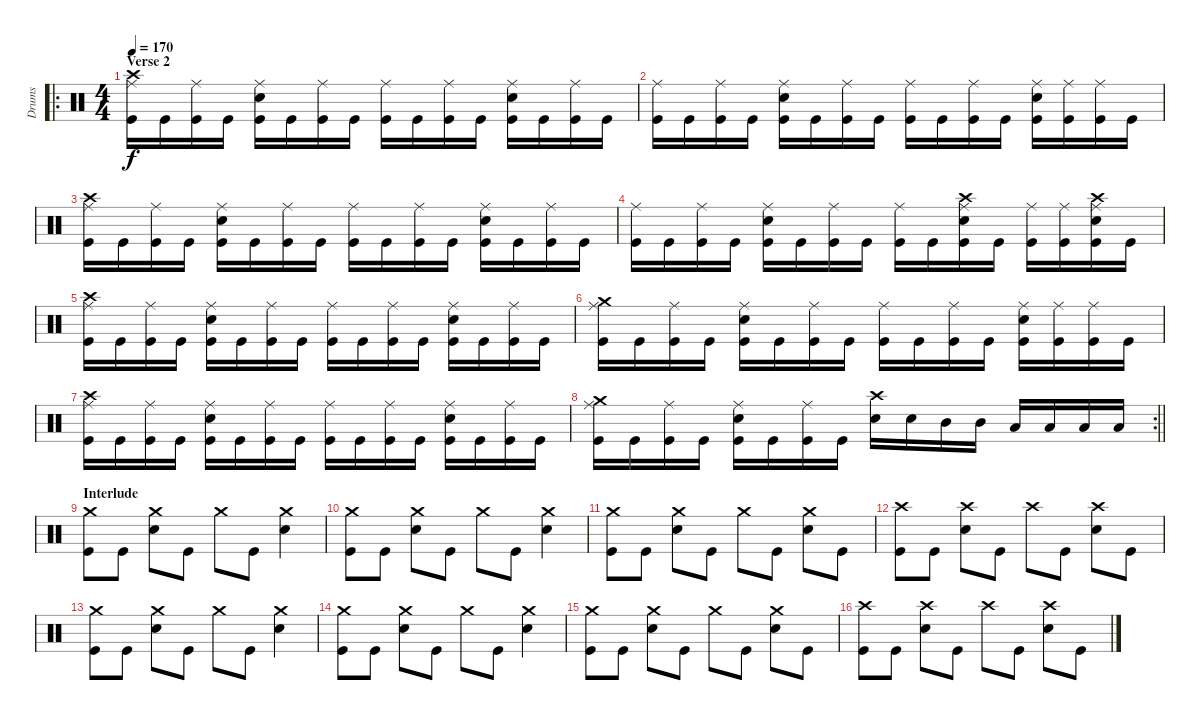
\track ("Drums" "Drums") {instrument percussion}
\staff {score}
\articulation defaults
\ro
\ts (4 4)
\section ("" "Verse 2")
\tempo 170
\clef neutral
\ks c
("Ride (middle)" "Crash high (hit)" "Kick (hit)").16{dy f} "Kick (hit)".16 ("Ride (middle)" "Kick (hit)").16 "Kick (hit)".16 ("Ride (middle)" "Snare (hit) 2" "Kick (hit)").16 "Kick (hit)".16 ("Ride (middle)" "Kick (hit)").16 "Kick (hit)".16 ("Ride (middle)" "Kick (hit)").16 "Kick (hit)".16 ("Ride (middle)" "Kick (hit)").16 "Kick (hit)".16 ("Ride (middle)" "Snare (hit) 2" "Kick (hit)").16 "Kick (hit)".16 ("Ride (middle)" "Kick (hit)").16 "Kick (hit)".16 |
("Ride (middle)" "Kick (hit)").16 "Kick (hit)".16 ("Ride (middle)" "Kick (hit)").16 "Kick (hit)".16 ("Ride (middle)" "Snare (hit) 2" "Kick (hit)").16 "Kick (hit)".16 ("Ride (middle)" "Kick (hit)").16 "Kick (hit)".16 ("Ride (middle)" "Kick (hit)").16 "Kick (hit)".16 ("Ride (middle)" "Kick (hit)").16 "Kick (hit)".16 ("Ride (middle)" "Snare (hit) 2" "Kick (hit)").16 ("Ride (middle)" "Kick (hit)").16 ("Ride (middle)" "Kick (hit)").16 "Kick (hit)".16 |
("Ride (middle)" "Crash high (hit)" "Kick (hit)").16 "Kick (hit)".16 ("Ride (middle)" "Kick (hit)").16 "Kick (hit)".16 ("Ride (middle)" "Snare (hit) 2" "Kick (hit)").16 "Kick (hit)".16 ("Ride (middle)" "Kick (hit)").16 "Kick (hit)".16 ("Ride (middle)" "Kick (hit)").16 "Kick (hit)".16 ("Ride (middle)" "Kick (hit)").16 "Kick (hit)".16 ("Ride (middle)" "Snare (hit) 2" "Kick (hit)").16 "Kick (hit)".16 ("Ride (middle)" "Kick (hit)").16 "Kick (hit)".16 |
("Ride (middle)" "Kick (hit)").16 "Kick (hit)".16 ("Ride (middle)" "Kick (hit)").16 "Kick (hit)".16 ("Ride (middle)" "Snare (hit) 2" "Kick (hit)").16 "Kick (hit)".16 ("Ride (middle)" "Kick (hit)").16 "Kick (hit)".16 ("Ride (middle)" "Kick (hit)").16 "Kick (hit)".16 ("Ride (middle)" "Crash high (hit)" "Snare (hit) 2" "Kick (hit)").16 "Kick (hit)".16 ("Ride (middle)" "Kick (hit)").16 ("Ride (middle)" "Kick (hit)").16 ("Ride (middle)" "Crash high (hit)" "Snare (hit) 2" "Kick (hit)").16 "Kick (hit)".16 |
("Ride (middle)" "Crash high (hit)" "Kick (hit)").16 "Kick (hit)".16 ("Ride (middle)" "Kick (hit)").16 "Kick (hit)".16 ("Ride (middle)" "Snare (hit) 2" "Kick (hit)").16 "Kick (hit)".16 ("Ride (middle)" "Kick (hit)").16 "Kick (hit)".16 ("Ride (middle)" "Kick (hit)").16 "Kick (hit)".16 ("Ride (middle)" "Kick (hit)").16 "Kick (hit)".16 ("Ride (middle)" "Snare (hit) 2" "Kick (hit)").16 "Kick (hit)".16 ("Ride (middle)" "Kick (hit)").16 "Kick (hit)".16 |
("Ride (middle)" "Crash medium (hit)" "Kick (hit)").16 "Kick (hit)".16 ("Ride (middle)" "Kick (hit)").16 "Kick (hit)".16 ("Ride (middle)" "Snare (hit) 2" "Kick (hit)").16 "Kick (hit)".16 ("Ride (middle)" "Kick (hit)").16 "Kick (hit)".16 ("Ride (middle)" "Kick (hit)").16 "Kick (hit)".16 ("Ride (middle)" "Kick (hit)").16 "Kick (hit)".16 ("Ride (middle)" "Snare (hit) 2" "Kick (hit)").16 ("Ride (middle)" "Kick (hit)").16 ("Ride (middle)" "Kick (hit)").16 "Kick (hit)".16 |
("Ride (middle)" "Crash high (hit)" "Kick (hit)").16 "Kick (hit)".16 ("Ride (middle)" "Kick (hit)").16 "Kick (hit)".16 ("Ride (middle)" "Snare (hit) 2" "Kick (hit)").16 "Kick (hit)".16 ("Ride (middle)" "Kick (hit)").16 "Kick (hit)".16 ("Ride (middle)" "Kick (hit)").16 "Kick (hit)".16 ("Ride (middle)" "Kick (hit)").16 "Kick (hit)".16 ("Ride (middle)" "Snare (hit) 2" "Kick (hit)").16 "Kick (hit)".16 ("Ride (middle)" "Kick (hit)").16 "Kick (hit)".16 |
\rc 2
\barLineRight lightlight
("Ride (middle)" "Crash medium (hit)" "Kick (hit)").16 "Kick (hit)".16 ("Ride (middle)" "Kick (hit)").16 "Kick (hit)".16 ("Ride (middle)" "Snare (hit) 2" "Kick (hit)").16 "Kick (hit)".16 ("Ride (middle)" "Kick (hit)").16 "Kick (hit)".16 ("Crash high (hit)" "Snare (hit) 2").16 "Snare (hit) 2".16 "Mid Tom (hit)".16 "Mid Tom (hit)".16 "Low Tom (hit)".16 "Low Tom (hit)".16 "Low Floor Tom (hit)".16 "Low Floor Tom (hit)".16 |
\section ("" "Interlude")
("Crash medium (hit)" "Kick (hit)").8 "Kick (hit)".8 ("Crash medium (hit)" "Snare (hit) 2").8 "Kick (hit)".8 "Crash medium (hit)".8 "Kick (hit)".8 ("Crash medium (hit)" "Snare (hit) 2").4 |
("Crash medium (hit)" "Kick (hit)").8 "Kick (hit)".8 ("Crash medium (hit)" "Snare (hit) 2").8 "Kick (hit)".8 "Crash medium (hit)".8 "Kick (hit)".8 ("Crash medium (hit)" "Snare (hit) 2").4 |
("Crash medium (hit)" "Kick (hit)").8 "Kick (hit)".8 ("Crash medium (hit)" "Snare (hit) 2").8 "Kick (hit)".8 "Crash medium (hit)".8 "Kick (hit)".8 ("Crash medium (hit)" "Snare (hit) 2").8 "Kick (hit)".8 |
("Crash high (hit)" "Kick (hit)").8 "Kick (hit)".8 ("Crash high (hit)" "Snare (hit) 2").8 "Kick (hit)".8 "Crash high (hit)".8 "Kick (hit)".8 ("Crash high (hit)" "Snare (hit) 2").8 "Kick (hit)".8 |
("Crash medium (hit)" "Kick (hit)").8 "Kick (hit)".8 ("Crash medium (hit)" "Snare (hit) 2").8 "Kick (hit)".8 "Crash medium (hit)".8 "Kick (hit)".8 ("Crash medium (hit)" "Snare (hit) 2").4 |
("Crash medium (hit)" "Kick (hit)").8 "Kick (hit)".8 ("Crash medium (hit)" "Snare (hit) 2").8 "Kick (hit)".8 "Crash medium (hit)".8 "Kick (hit)".8 ("Crash medium (hit)" "Snare (hit) 2").4 |
("Crash medium (hit)" "Kick (hit)").8 "Kick (hit)".8 ("Crash medium (hit)" "Snare (hit) 2").8 "Kick (hit)".8 "Crash medium (hit)".8 "Kick (hit)".8 ("Crash medium (hit)" "Snare (hit) 2").8 "Kick (hit)".8 |
("Crash high (hit)" "Kick (hit)").8 "Kick (hit)".8 ("Crash high (hit)" "Snare (hit) 2").8 "Kick (hit)".8 "Crash high (hit)".8 "Kick (hit)".8 ("Crash high (hit)" "Snare (hit) 2").8 "Kick (hit)".8
